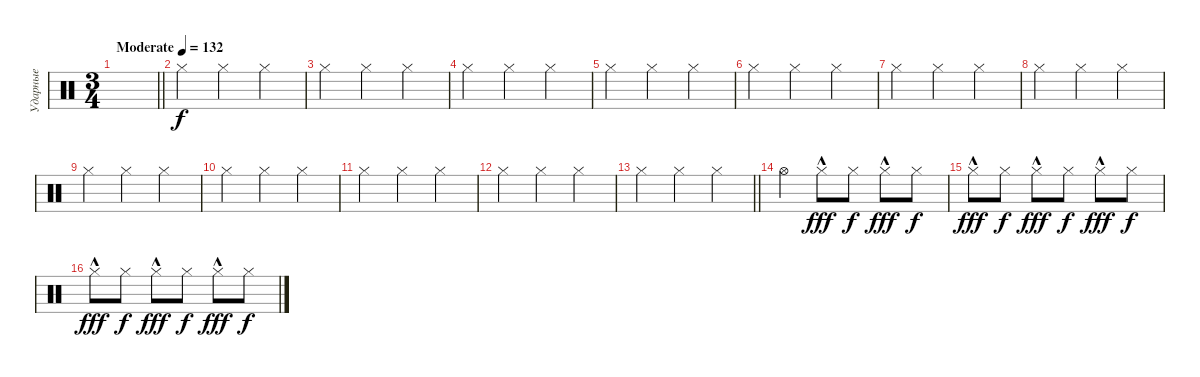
\track ("Ударные" "Ударные") {instrument percussion}
\staff {score}
\articulation defaults
\ts (3 4)
\tempo (132 "Moderate")
\clef neutral
\barLineRight lightlight
\ks c
|
\section ("" "")
"Hi-Hat (closed)".4 "Hi-Hat (closed)".4 "Hi-Hat (closed)".4 |
"Hi-Hat (closed)".4 "Hi-Hat (closed)".4 "Hi-Hat (closed)".4 |
"Hi-Hat (closed)".4 "Hi-Hat (closed)".4 "Hi-Hat (closed)".4 |
"Hi-Hat (closed)".4 "Hi-Hat (closed)".4 "Hi-Hat (closed)".4 |
"Hi-Hat (closed)".4 "Hi-Hat (closed)".4 "Hi-Hat (closed)".4 |
"Hi-Hat (closed)".4 "Hi-Hat (closed)".4 "Hi-Hat (closed)".4 |
"Hi-Hat (closed)".4 "Hi-Hat (closed)".4 "Hi-Hat (closed)".4 |
"Hi-Hat (closed)".4 "Hi-Hat (closed)".4 "Hi-Hat (closed)".4 |
"Hi-Hat (closed)".4 "Hi-Hat (closed)".4 "Hi-Hat (closed)".4 |
"Hi-Hat (closed)".4 "Hi-Hat (closed)".4 "Hi-Hat (closed)".4 |
"Hi-Hat (closed)".4 "Hi-Hat (closed)".4 "Hi-Hat (closed)".4 |
\barLineRight lightlight "Hi-Hat (closed)".4 "Hi-Hat (closed)".4 "Hi-Hat (closed)".4
|
\section ("" "")
"Hi-Hat (open)".4 "Hi-Hat (closed)"{hac}.8{dy fff} "Hi-Hat (closed)".8{dy f} "Hi-Hat (closed)"{hac}.8{dy fff} "Hi-Hat (closed)".8{dy f} |
"Hi-Hat (closed)"{hac}.8{dy fff} "Hi-Hat (closed)".8{dy f} "Hi-Hat (closed)"{hac}.8{dy fff} "Hi-Hat (closed)".8{dy f} "Hi-Hat (closed)"{hac}.8{dy fff} "Hi-Hat (closed)".8{dy f} |
"Hi-Hat (closed)"{hac}.8{dy fff} "Hi-Hat (closed)".8{dy f} "Hi-Hat (closed)"{hac}.8{dy fff} "Hi-Hat (closed)".8{dy f} "Hi-Hat (closed)"{hac}.8{dy fff} "Hi-Hat (closed)".8{dy f}
